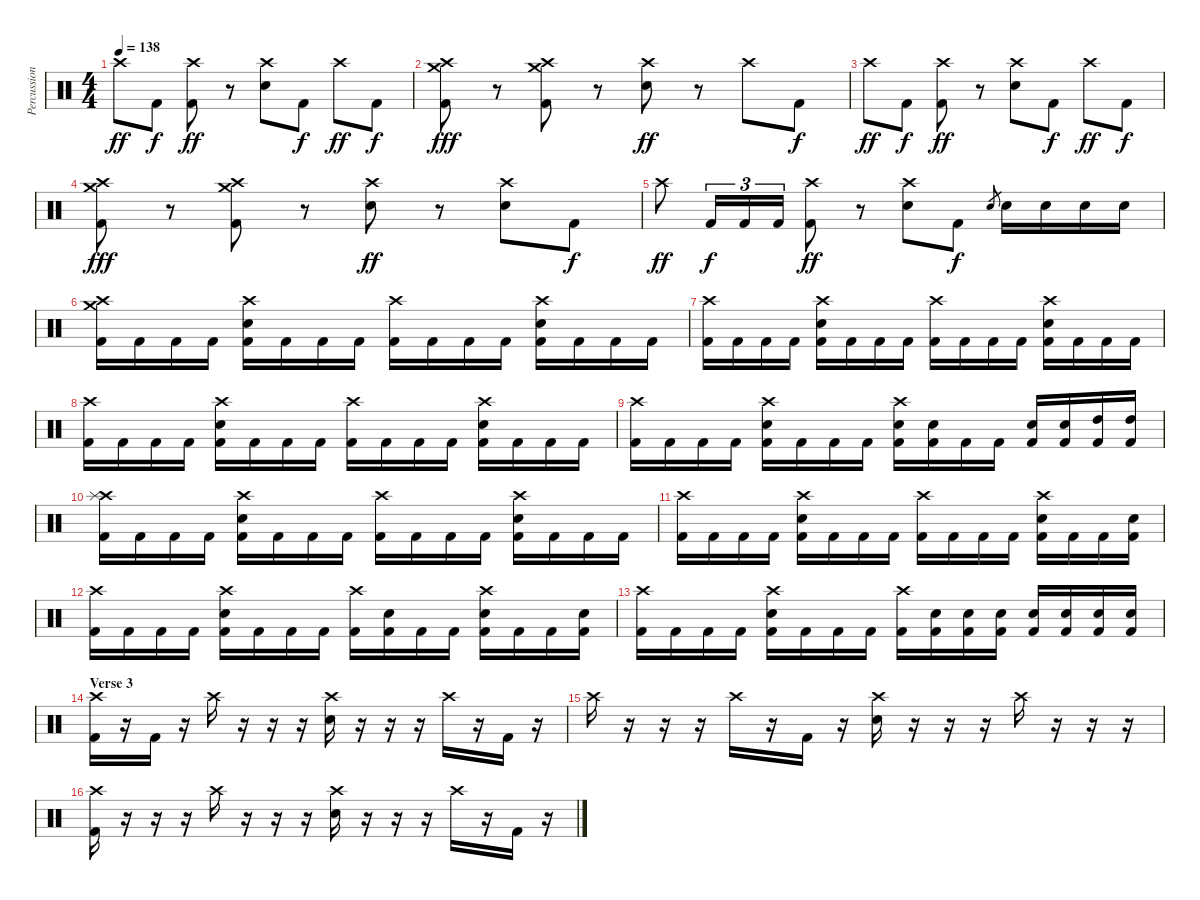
\track ("Percussion" "Percussion") {instrument percussion}
\staff {score}
\articulation defaults
\ts (4 4)
\tempo 138
\clef neutral
\ks c "Crash high (hit)".8{dy ff} "Kick (hit) 2".8{dy f}
("Crash high (hit)" "Kick (hit) 2").8{dy ff} r.8 ("Crash high (hit)" "Electric Snare (hit)").8 "Kick (hit) 2".8{dy f} "Crash high (hit)".8{dy ff} "Kick (hit) 2".8{dy f} |
("Crash high (hit)" "Crash medium (hit)" "Kick (hit) 2").8{dy fff} r.8 ("Crash high (hit)" "Crash medium (hit)" "Kick (hit) 2").8 r.8 ("Crash high (hit)" "Electric Snare (hit)").8{dy ff} r.8 "Crash high (hit)".8 "Kick (hit) 2".8{dy f} |
"Crash high (hit)".8{dy ff} "Kick (hit) 2".8{dy f} ("Crash high (hit)" "Kick (hit) 2").8{dy ff} r.8 ("Crash high (hit)" "Electric Snare (hit)").8 "Kick (hit) 2".8{dy f} "Crash high (hit)".8{dy ff} "Kick (hit) 2".8{dy f} |
("Crash high (hit)" "Crash medium (hit)" "Kick (hit) 2").8{dy fff} r.8 ("Crash high (hit)" "Crash medium (hit)" "Kick (hit) 2").8 r.8 ("Crash high (hit)" "Electric Snare (hit)").8{dy ff} r.8 ("Crash high (hit)" "Electric Snare (hit)").8 "Kick (hit) 2".8{dy f} |
"Crash high (hit)".8{dy ff} "Kick (hit) 2".16{tu (3 2) dy f} "Kick (hit) 2".16{tu (3 2)} "Kick (hit) 2".16{tu (3 2)} ("Crash high (hit)" "Kick (hit) 2").8{dy ff} r.8 ("Crash high (hit)" "Electric Snare (hit)").8 "Kick (hit) 2".8{dy f} "Electric Snare (hit)".8{gr} "Electric Snare (hit)".16 "Electric Snare (hit)".16 "Electric Snare (hit)".16 "Electric Snare (hit)".16 |
("Crash high (hit)" "Crash medium (hit)" "Kick (hit) 2").16 "Kick (hit) 2".16 "Kick (hit) 2".16 "Kick (hit) 2".16 ("Crash high (hit)" "Electric Snare (hit)" "Kick (hit) 2").16 "Kick (hit) 2".16 "Kick (hit) 2".16 "Kick (hit) 2".16 ("Crash high (hit)" "Kick (hit) 2").16 "Kick (hit) 2".16 "Kick (hit) 2".16 "Kick (hit) 2".16 ("Crash high (hit)" "Electric Snare (hit)" "Kick (hit) 2").16 "Kick (hit) 2".16 "Kick (hit) 2".16 "Kick (hit) 2".16 |
("Crash high (hit)" "Kick (hit) 2").16 "Kick (hit) 2".16 "Kick (hit) 2".16 "Kick (hit) 2".16 ("Crash high (hit)" "Electric Snare (hit)" "Kick (hit) 2").16 "Kick (hit) 2".16 "Kick (hit) 2".16 "Kick (hit) 2".16 ("Crash high (hit)" "Kick (hit) 2").16 "Kick (hit) 2".16 "Kick (hit) 2".16 "Kick (hit) 2".16 ("Crash high (hit)" "Electric Snare (hit)" "Kick (hit) 2").16 "Kick (hit) 2".16 "Kick (hit) 2".16 "Kick (hit) 2".16 |
("Crash high (hit)" "Kick (hit) 2").16 "Kick (hit) 2".16 "Kick (hit) 2".16 "Kick (hit) 2".16 ("Crash high (hit)" "Electric Snare (hit)" "Kick (hit) 2").16 "Kick (hit) 2".16 "Kick (hit) 2".16 "Kick (hit) 2".16 ("Crash high (hit)" "Kick (hit) 2").16 "Kick (hit) 2".16 "Kick (hit) 2".16 "Kick (hit) 2".16 ("Crash high (hit)" "Electric Snare (hit)" "Kick (hit) 2").16 "Kick (hit) 2".16 "Kick (hit) 2".16 "Kick (hit) 2".16 |
("Crash high (hit)" "Kick (hit) 2").16 "Kick (hit) 2".16 "Kick (hit) 2".16 "Kick (hit) 2".16 ("Crash high (hit)" "Electric Snare (hit)" "Kick (hit) 2").16 "Kick (hit) 2".16 "Kick (hit) 2".16 "Kick (hit) 2".16 ("Crash high (hit)" "Electric Snare (hit)" "Kick (hit) 2").16 ("Electric Snare (hit)" "Kick (hit) 2").16 "Kick (hit) 2".16 "Kick (hit) 2".16 ("Electric Snare (hit)" "Kick (hit) 2").16 ("Electric Snare (hit)" "Kick (hit) 2").16 ("High Tom (hit)" "Kick (hit) 2").16 ("High Tom (hit)" "Kick (hit) 2").16 |
("Crash high (hit)" "Splash (hit)" "Kick (hit) 2").16 "Kick (hit) 2".16 "Kick (hit) 2".16 "Kick (hit) 2".16 ("Crash high (hit)" "Electric Snare (hit)" "Kick (hit) 2").16 "Kick (hit) 2".16 "Kick (hit) 2".16 "Kick (hit) 2".16 ("Crash high (hit)" "Kick (hit) 2").16 "Kick (hit) 2".16 "Kick (hit) 2".16 "Kick (hit) 2".16 ("Crash high (hit)" "Electric Snare (hit)" "Kick (hit) 2").16 "Kick (hit) 2".16 "Kick (hit) 2".16 "Kick (hit) 2".16 |
("Crash high (hit)" "Kick (hit) 2").16 "Kick (hit) 2".16 "Kick (hit) 2".16 "Kick (hit) 2".16 ("Crash high (hit)" "Electric Snare (hit)" "Kick (hit) 2").16 "Kick (hit) 2".16 "Kick (hit) 2".16 "Kick (hit) 2".16 ("Crash high (hit)" "Kick (hit) 2").16 "Kick (hit) 2".16 "Kick (hit) 2".16 "Kick (hit) 2".16 ("Crash high (hit)" "Electric Snare (hit)" "Kick (hit) 2").16 "Kick (hit) 2".16 "Kick (hit) 2".16 ("Electric Snare (hit)" "Kick (hit) 2").16 |
("Crash high (hit)" "Kick (hit) 2").16 "Kick (hit) 2".16 "Kick (hit) 2".16 "Kick (hit) 2".16 ("Crash high (hit)" "Electric Snare (hit)" "Kick (hit) 2").16 "Kick (hit) 2".16 "Kick (hit) 2".16 "Kick (hit) 2".16 ("Crash high (hit)" "Kick (hit) 2").16 ("Electric Snare (hit)" "Kick (hit) 2").16 "Kick (hit) 2".16 "Kick (hit) 2".16 ("Crash high (hit)" "Electric Snare (hit)" "Kick (hit) 2").16 "Kick (hit) 2".16 "Kick (hit) 2".16 ("Electric Snare (hit)" "Kick (hit) 2").16 |
("Crash high (hit)" "Kick (hit) 2").16 "Kick (hit) 2".16 "Kick (hit) 2".16 "Kick (hit) 2".16 ("Crash high (hit)" "Electric Snare (hit)" "Kick (hit) 2").16 "Kick (hit) 2".16 "Kick (hit) 2".16 "Kick (hit) 2".16 ("Crash high (hit)" "Kick (hit) 2").16 ("Electric Snare (hit)" "Kick (hit) 2").16 ("Electric Snare (hit)" "Kick (hit) 2").16 ("Electric Snare (hit)" "Kick (hit) 2").16 ("Electric Snare (hit)" "Kick (hit) 2").16 ("Electric Snare (hit)" "Kick (hit) 2").16 ("Electric Snare (hit)" "Kick (hit) 2").16 ("Electric Snare (hit)" "Kick (hit) 2").16 |
\section ("" "Verse 3")
("Crash high (hit)" "Kick (hit) 2").16 r.16 "Kick (hit) 2".16 r.16 "Crash high (hit)".16 r.16 r.16 r.16 ("Crash high (hit)" "Electric Snare (hit)").16 r.16 r.16 r.16 "Crash high (hit)".16 r.16 "Kick (hit) 2".16 r.16 |
"Crash high (hit)".16 r.16 r.16 r.16 "Crash high (hit)".16 r.16 "Kick (hit) 2".16 r.16 ("Crash high (hit)" "Electric Snare (hit)").16 r.16 r.16 r.16 "Crash high (hit)".16 r.16 r.16 r.16 |
("Crash high (hit)" "Kick (hit) 2").16 r.16 r.16 r.16 "Crash high (hit)".16 r.16 r.16 r.16 ("Crash high (hit)" "Electric Snare (hit)").16 r.16 r.16 r.16 "Crash high (hit)".16 r.16 "Kick (hit) 2".16 r.16
